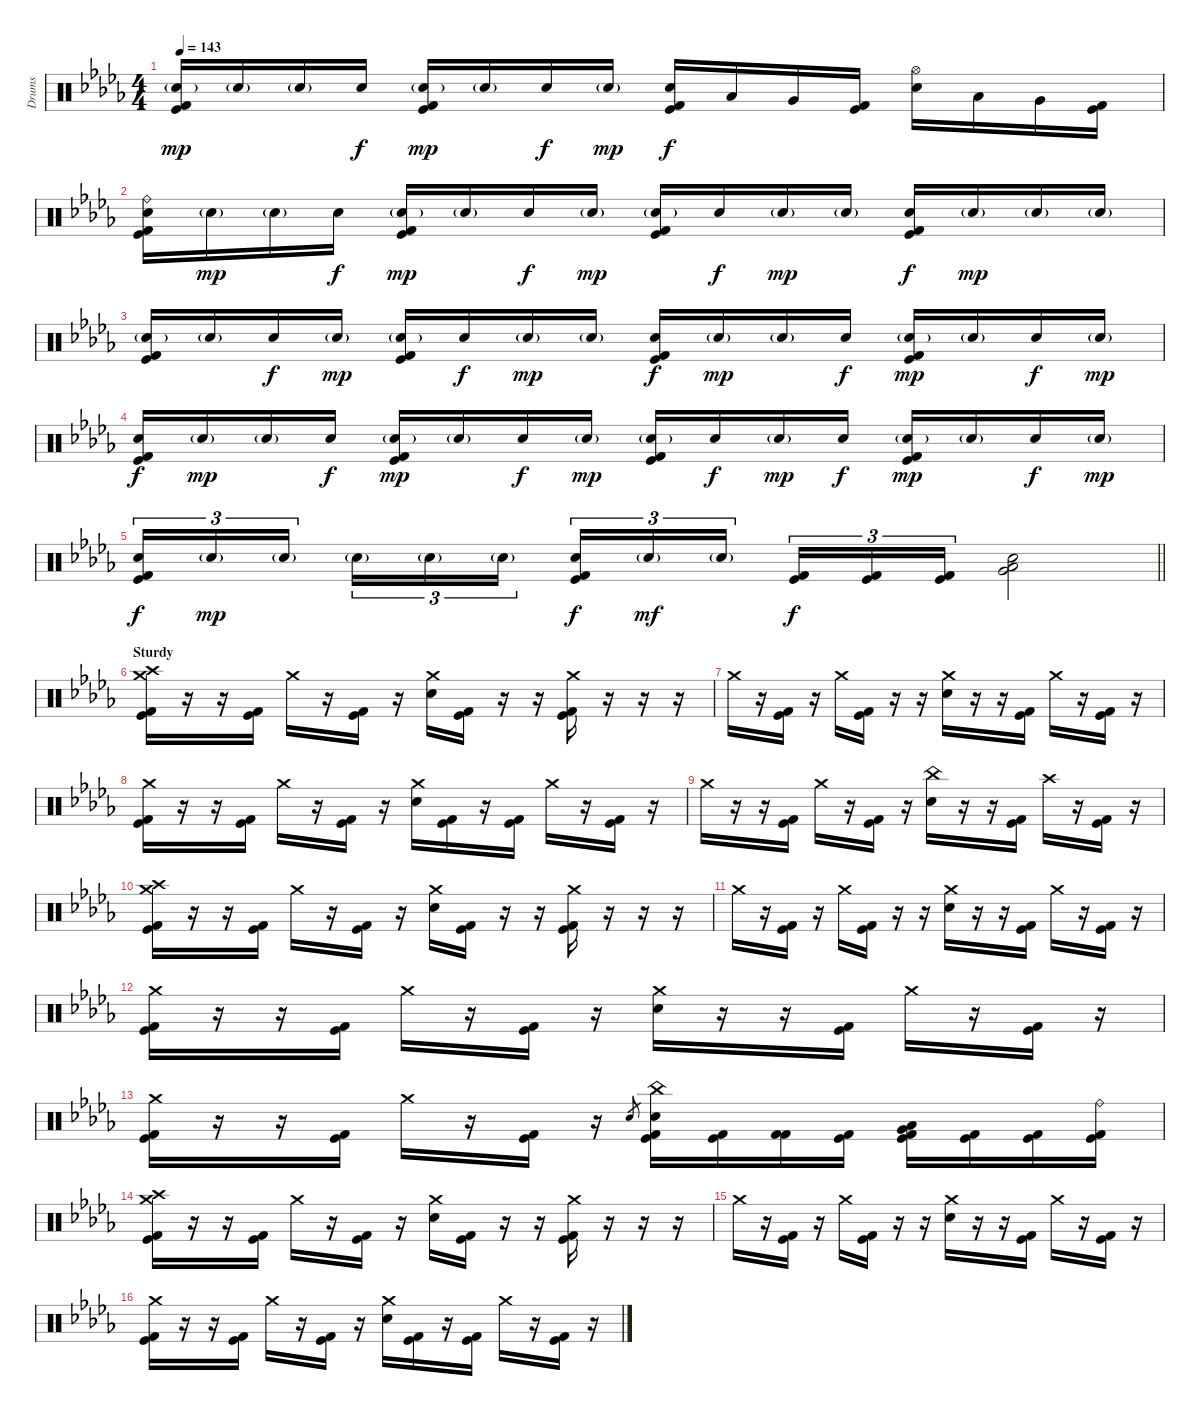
\track ("Drums" "Drums") {instrument percussion}
\staff {score}
\articulation defaults
\ts (4 4)
\tempo 143
\clef neutral
\ks db
("Electric Snare (hit)"{g} "Kick (hit)" "Kick (hit) 2").16{dy mp} "Electric Snare (hit)"{g}.16 "Electric Snare (hit)"{g}.16 "Electric Snare (hit)".16{dy f} ("Electric Snare (hit)"{g} "Kick (hit)" "Kick (hit) 2").16{dy mp} "Electric Snare (hit)"{g}.16 "Electric Snare (hit)".16{dy f} "Electric Snare (hit)"{g}.16{dy mp} ("Electric Snare (hit)" "Kick (hit)" "Kick (hit) 2").16{dy f} "Low Tom (hit)".16 "Very Low Tom (hit)".16 ("Kick (hit)" "Kick (hit) 2").16 ("Hi-Hat (open)" "Electric Snare (hit)").16 "Low Tom (hit)".16 "Very Low Tom (hit)".16 ("Kick (hit)" "Kick (hit) 2").16 |
("Ride (bell)" "Electric Snare (hit)" "Kick (hit)" "Kick (hit) 2").16 "Electric Snare (hit)"{g}.16{dy mp} "Electric Snare (hit)"{g}.16 "Electric Snare (hit)".16{dy f} ("Electric Snare (hit)"{g} "Kick (hit)" "Kick (hit) 2").16{dy mp} "Electric Snare (hit)"{g}.16 "Electric Snare (hit)".16{dy f} "Electric Snare (hit)"{g}.16{dy mp} ("Electric Snare (hit)"{g} "Kick (hit)" "Kick (hit) 2").16 "Electric Snare (hit)".16{dy f} "Electric Snare (hit)"{g}.16{dy mp} "Electric Snare (hit)"{g}.16 ("Electric Snare (hit)" "Kick (hit)" "Kick (hit) 2").16{dy f} "Electric Snare (hit)"{g}.16{dy mp} "Electric Snare (hit)"{g}.16 "Electric Snare (hit)"{g}.16 |
("Electric Snare (hit)"{g} "Kick (hit)" "Kick (hit) 2").16 "Electric Snare (hit)"{g}.16 "Electric Snare (hit)".16{dy f} "Electric Snare (hit)"{g}.16{dy mp} ("Electric Snare (hit)"{g} "Kick (hit)" "Kick (hit) 2").16 "Electric Snare (hit)".16{dy f} "Electric Snare (hit)"{g}.16{dy mp} "Electric Snare (hit)"{g}.16 ("Electric Snare (hit)" "Kick (hit)" "Kick (hit) 2").16{dy f} "Electric Snare (hit)"{g}.16{dy mp} "Electric Snare (hit)"{g}.16 "Electric Snare (hit)".16{dy f} ("Electric Snare (hit)"{g} "Kick (hit)" "Kick (hit) 2").16{dy mp} "Electric Snare (hit)"{g}.16 "Electric Snare (hit)".16{dy f} "Electric Snare (hit)"{g}.16{dy mp} |
("Electric Snare (hit)" "Kick (hit)" "Kick (hit) 2").16{dy f} "Electric Snare (hit)"{g}.16{dy mp} "Electric Snare (hit)"{g}.16 "Electric Snare (hit)".16{dy f} ("Electric Snare (hit)"{g} "Kick (hit)" "Kick (hit) 2").16{dy mp} "Electric Snare (hit)"{g}.16 "Electric Snare (hit)".16{dy f} "Electric Snare (hit)"{g}.16{dy mp} ("Electric Snare (hit)"{g} "Kick (hit)" "Kick (hit) 2").16 "Electric Snare (hit)".16{dy f} "Electric Snare (hit)"{g}.16{dy mp} "Electric Snare (hit)".16{dy f} ("Electric Snare (hit)"{g} "Kick (hit)" "Kick (hit) 2").16{dy mp} "Electric Snare (hit)"{g}.16 "Electric Snare (hit)".16{dy f} "Electric Snare (hit)"{g}.16{dy mp} |
\barLineRight lightlight
("Electric Snare (hit)" "Kick (hit)" "Kick (hit) 2").16{tu (3 2) dy f} "Electric Snare (hit)"{g}.16{tu (3 2) dy mp} "Electric Snare (hit)"{g}.16{tu (3 2) beam splitsecondary} "Electric Snare (hit)"{g}.16{tu (3 2)} "Electric Snare (hit)"{g}.16{tu (3 2)} "Electric Snare (hit)"{g}.16{tu (3 2)} ("Electric Snare (hit)" "Kick (hit)" "Kick (hit) 2").16{tu (3 2) dy f} "Electric Snare (hit)"{g}.16{tu (3 2) dy mf} "Electric Snare (hit)"{g}.16{tu (3 2) beam splitsecondary} ("Kick (hit)" "Kick (hit) 2").16{tu (3 2) dy f} ("Kick (hit)" "Kick (hit) 2").16{tu (3 2)} ("Kick (hit)" "Kick (hit) 2").16{tu (3 2)} ("Low Floor Tom (hit)" "Very Low Tom (hit)" "Electric Snare (hit)").2 |
\section ("" "Sturdy")
("Crash medium (hit)" "Crash high (hit)" "Kick (hit)" "Kick (hit) 2").16 r.16 r.16 ("Kick (hit)" "Kick (hit) 2").16 "Crash medium (hit)".16 r.16 ("Kick (hit)" "Kick (hit) 2").16 r.16 ("Crash medium (hit)" "Electric Snare (hit)").16 ("Kick (hit)" "Kick (hit) 2").16 r.16 r.16 ("Crash medium (hit)" "Kick (hit)" "Kick (hit) 2").16 r.16 r.16 r.16 |
"Crash medium (hit)".16 r.16 ("Kick (hit)" "Kick (hit) 2").16 r.16 "Crash medium (hit)".16 ("Kick (hit)" "Kick (hit) 2").16 r.16 r.16 ("Crash medium (hit)" "Electric Snare (hit)").16 r.16 r.16 ("Kick (hit)" "Kick (hit) 2").16 "Crash medium (hit)".16 r.16 ("Kick (hit)" "Kick (hit) 2").16 r.16 |
("Crash medium (hit)" "Kick (hit)" "Kick (hit) 2").16 r.16 r.16 ("Kick (hit)" "Kick (hit) 2").16 "Crash medium (hit)".16 r.16 ("Kick (hit)" "Kick (hit) 2").16 r.16 ("Crash medium (hit)" "Electric Snare (hit)").16 ("Kick (hit)" "Kick (hit) 2").16 r.16 ("Kick (hit)" "Kick (hit) 2").16 "Crash medium (hit)".16 r.16 ("Kick (hit)" "Kick (hit) 2").16 r.16 |
"Crash medium (hit)".16 r.16 r.16 ("Kick (hit)" "Kick (hit) 2").16 "Crash medium (hit)".16 r.16 ("Kick (hit)" "Kick (hit) 2").16 r.16 ("China (hit)" "Electric Snare (hit)").16 r.16 r.16 ("Kick (hit)" "Kick (hit) 2").16 "Crash high (hit)".16 r.16 ("Kick (hit)" "Kick (hit) 2").16 r.16 |
("Crash medium (hit)" "Crash high (hit)" "Kick (hit)" "Kick (hit) 2").16 r.16 r.16 ("Kick (hit)" "Kick (hit) 2").16 "Crash medium (hit)".16 r.16 ("Kick (hit)" "Kick (hit) 2").16 r.16 ("Crash medium (hit)" "Electric Snare (hit)").16 ("Kick (hit)" "Kick (hit) 2").16 r.16 r.16 ("Crash medium (hit)" "Kick (hit)" "Kick (hit) 2").16 r.16 r.16 r.16 |
"Crash medium (hit)".16 r.16 ("Kick (hit)" "Kick (hit) 2").16 r.16 "Crash medium (hit)".16 ("Kick (hit)" "Kick (hit) 2").16 r.16 r.16 ("Crash medium (hit)" "Electric Snare (hit)").16 r.16 r.16 ("Kick (hit)" "Kick (hit) 2").16 "Crash medium (hit)".16 r.16 ("Kick (hit)" "Kick (hit) 2").16 r.16 |
("Crash medium (hit)" "Kick (hit)" "Kick (hit) 2").16 r.16 r.16 ("Kick (hit)" "Kick (hit) 2").16 "Crash medium (hit)".16 r.16 ("Kick (hit)" "Kick (hit) 2").16 r.16 ("Crash medium (hit)" "Electric Snare (hit)").16 r.16 r.16 ("Kick (hit)" "Kick (hit) 2").16 "Crash medium (hit)".16 r.16 ("Kick (hit)" "Kick (hit) 2").16 r.16 |
("Crash medium (hit)" "Kick (hit)" "Kick (hit) 2").16 r.16 r.16 ("Kick (hit)" "Kick (hit) 2").16 "Crash medium (hit)".16 r.16 ("Kick (hit)" "Kick (hit) 2").16 r.16 "Electric Snare (hit)".8{gr} ("China (hit)" "Electric Snare (hit)" "Kick (hit)" "Kick (hit) 2").16 ("Kick (hit)" "Kick (hit) 2").16 ("Kick (hit) 2" "Kick (hit) 2").16 ("Kick (hit)" "Kick (hit) 2").16 ("Low Floor Tom (hit)" "Very Low Tom (hit)" "Kick (hit)" "Kick (hit) 2").16 ("Kick (hit)" "Kick (hit) 2").16 ("Kick (hit)" "Kick (hit) 2").16 ("Ride (bell)" "Kick (hit)" "Kick (hit) 2").16 |
("Crash medium (hit)" "Crash high (hit)" "Kick (hit)" "Kick (hit) 2").16 r.16 r.16 ("Kick (hit)" "Kick (hit) 2").16 "Crash medium (hit)".16 r.16 ("Kick (hit)" "Kick (hit) 2").16 r.16 ("Crash medium (hit)" "Electric Snare (hit)").16 ("Kick (hit)" "Kick (hit) 2").16 r.16 r.16 ("Crash medium (hit)" "Kick (hit)" "Kick (hit) 2").16 r.16 r.16 r.16 |
"Crash medium (hit)".16 r.16 ("Kick (hit)" "Kick (hit) 2").16 r.16 "Crash medium (hit)".16 ("Kick (hit)" "Kick (hit) 2").16 r.16 r.16 ("Crash medium (hit)" "Electric Snare (hit)").16 r.16 r.16 ("Kick (hit)" "Kick (hit) 2").16 "Crash medium (hit)".16 r.16 ("Kick (hit)" "Kick (hit) 2").16 r.16 |
("Crash medium (hit)" "Kick (hit)" "Kick (hit) 2").16 r.16 r.16 ("Kick (hit)" "Kick (hit) 2").16 "Crash medium (hit)".16 r.16 ("Kick (hit)" "Kick (hit) 2").16 r.16 ("Crash medium (hit)" "Electric Snare (hit)").16 ("Kick (hit)" "Kick (hit) 2").16 r.16 ("Kick (hit)" "Kick (hit) 2").16 "Crash medium (hit)".16 r.16 ("Kick (hit)" "Kick (hit) 2").16 r.16
